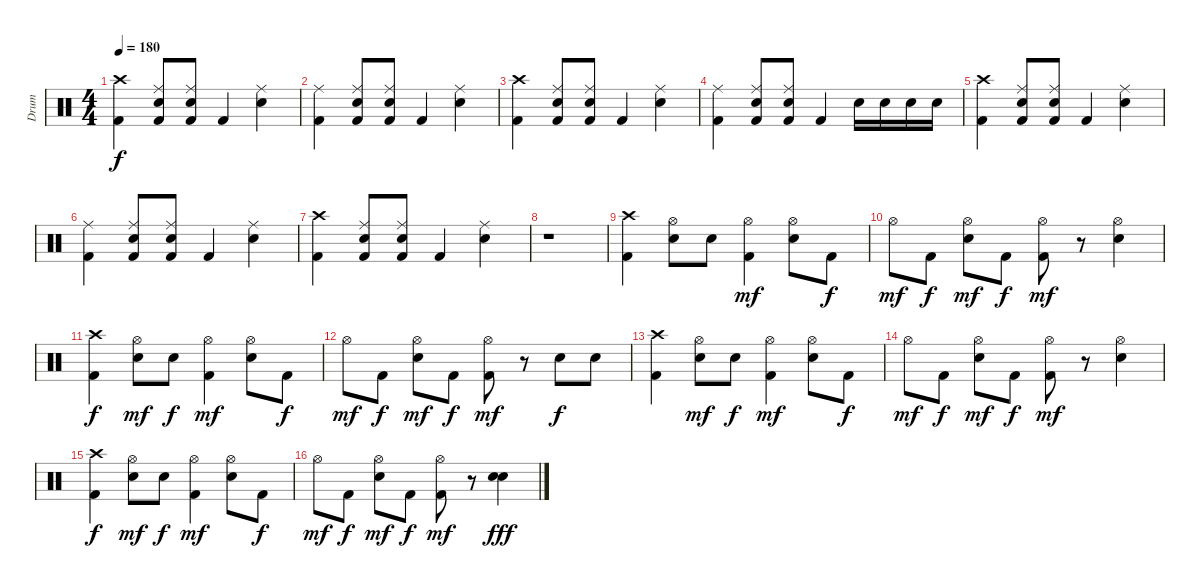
\track ("Drum" "Drum") {instrument percussion}
\staff {score}
\articulation defaults
\ts (4 4)
\tempo 180
\clef neutral
\ks c
("Crash high (hit)" "Kick (hit) 2").4{dy f volume 9} ("Ride (middle)" "Electric Snare (hit)" "Kick (hit) 2").8 ("Ride (middle)" "Electric Snare (hit)" "Kick (hit) 2").8 "Kick (hit) 2".4 ("Ride (middle)" "Electric Snare (hit)").4 |
("Ride (middle)" "Kick (hit) 2").4{volume 9} ("Ride (middle)" "Electric Snare (hit)" "Kick (hit) 2").8 ("Ride (middle)" "Electric Snare (hit)" "Kick (hit) 2").8 "Kick (hit) 2".4 ("Ride (middle)" "Electric Snare (hit)").4 |
("Crash high (hit)" "Kick (hit) 2").4{volume 9} ("Ride (middle)" "Electric Snare (hit)" "Kick (hit) 2").8 ("Ride (middle)" "Electric Snare (hit)" "Kick (hit) 2").8 "Kick (hit) 2".4 ("Ride (middle)" "Electric Snare (hit)").4 |
("Ride (middle)" "Kick (hit) 2").4{volume 9} ("Ride (middle)" "Electric Snare (hit)" "Kick (hit) 2").8 ("Ride (middle)" "Electric Snare (hit)" "Kick (hit) 2").8 "Kick (hit) 2".4 "Electric Snare (hit)".16 "Electric Snare (hit)".16 "Electric Snare (hit)".16 "Electric Snare (hit)".16 |
("Crash high (hit)" "Kick (hit) 2").4{volume 9} ("Ride (middle)" "Electric Snare (hit)" "Kick (hit) 2").8 ("Ride (middle)" "Electric Snare (hit)" "Kick (hit) 2").8 "Kick (hit) 2".4 ("Ride (middle)" "Electric Snare (hit)").4 |
("Ride (middle)" "Kick (hit) 2").4{volume 9} ("Ride (middle)" "Electric Snare (hit)" "Kick (hit) 2").8 ("Ride (middle)" "Electric Snare (hit)" "Kick (hit) 2").8 "Kick (hit) 2".4 ("Ride (middle)" "Electric Snare (hit)").4 |
("Crash high (hit)" "Kick (hit) 2").4{volume 9} ("Ride (middle)" "Electric Snare (hit)" "Kick (hit) 2").8 ("Ride (middle)" "Electric Snare (hit)" "Kick (hit) 2").8 "Kick (hit) 2".4 ("Ride (middle)" "Electric Snare (hit)").4 |
r.1 |
("Crash high (hit)" "Kick (hit) 2").4{volume 16} ("Hi-Hat (open)" "Electric Snare (hit)").8 "Electric Snare (hit)".8 ("Hi-Hat (open)" "Kick (hit) 2").4{dy mf} ("Hi-Hat (open)" "Electric Snare (hit)").8 "Kick (hit) 2".8{dy f} |
"Hi-Hat (open)".8{dy mf} "Kick (hit) 2".8{dy f} ("Hi-Hat (open)" "Electric Snare (hit)").8{dy mf} "Kick (hit) 2".8{dy f} ("Hi-Hat (open)" "Kick (hit) 2").8{dy mf} r.8 ("Hi-Hat (open)" "Electric Snare (hit)").4 |
("Crash high (hit)" "Kick (hit) 2").4{dy f volume 16} ("Hi-Hat (open)" "Electric Snare (hit)").8{dy mf} "Electric Snare (hit)".8{dy f} ("Hi-Hat (open)" "Kick (hit) 2").4{dy mf} ("Hi-Hat (open)" "Electric Snare (hit)").8 "Kick (hit) 2".8{dy f} |
"Hi-Hat (open)".8{dy mf} "Kick (hit) 2".8{dy f} ("Hi-Hat (open)" "Electric Snare (hit)").8{dy mf} "Kick (hit) 2".8{dy f} ("Hi-Hat (open)" "Kick (hit) 2").8{dy mf} r.8 "Electric Snare (hit)".8{dy f} "Electric Snare (hit)".8 |
("Crash high (hit)" "Kick (hit) 2").4{volume 16} ("Hi-Hat (open)" "Electric Snare (hit)").8{dy mf} "Electric Snare (hit)".8{dy f} ("Hi-Hat (open)" "Kick (hit) 2").4{dy mf} ("Hi-Hat (open)" "Electric Snare (hit)").8 "Kick (hit) 2".8{dy f} |
"Hi-Hat (open)".8{dy mf} "Kick (hit) 2".8{dy f} ("Hi-Hat (open)" "Electric Snare (hit)").8{dy mf} "Kick (hit) 2".8{dy f} ("Hi-Hat (open)" "Kick (hit) 2").8{dy mf} r.8 ("Hi-Hat (open)" "Electric Snare (hit)").4 |
("Crash high (hit)" "Kick (hit) 2").4{dy f volume 16} ("Hi-Hat (open)" "Electric Snare (hit)").8{dy mf} "Electric Snare (hit)".8{dy f} ("Hi-Hat (open)" "Kick (hit) 2").4{dy mf} ("Hi-Hat (open)" "Electric Snare (hit)").8 "Kick (hit) 2".8{dy f} |
"Hi-Hat (open)".8{dy mf} "Kick (hit) 2".8{dy f} ("Hi-Hat (open)" "Electric Snare (hit)").8{dy mf} "Kick (hit) 2".8{dy f} ("Hi-Hat (open)" "Kick (hit) 2").8{dy mf} r.8 ("Electric Snare (hit)" "Electric Snare (hit)").4{bd 240 dy fff}
